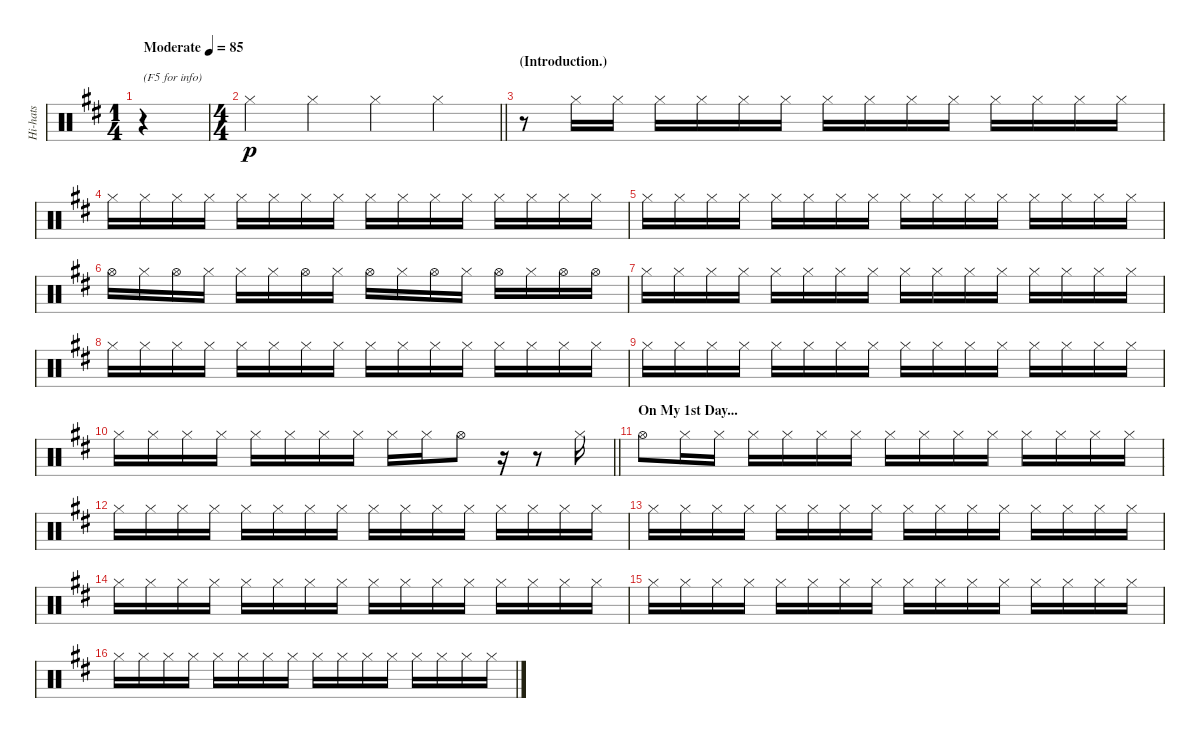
\track ("Hi-hats" "Hi-hats") {instrument percussion}
\staff {score}
\articulation defaults
\ts (1 4)
\tempo (85 "Moderate")
\clef neutral
\ks bminor
r.4{txt "(F5 for info)" dy p} |
\ts (4 4)
\barLineRight lightlight "Hi-Hat (closed)".4 "Hi-Hat (closed)".4 "Hi-Hat (closed)".4 "Hi-Hat (closed)".4
|
\section ("" "(Introduction.)")
r.8 "Hi-Hat (closed)".16 "Hi-Hat (closed)".16 "Hi-Hat (closed)".16 "Hi-Hat (closed)".16 "Hi-Hat (closed)".16 "Hi-Hat (closed)".16 "Hi-Hat (closed)".16 "Hi-Hat (closed)".16 "Hi-Hat (closed)".16 "Hi-Hat (closed)".16 "Hi-Hat (closed)".16 "Hi-Hat (closed)".16 "Hi-Hat (closed)".16 "Hi-Hat (closed)".16 |
"Hi-Hat (closed)".16 "Hi-Hat (closed)".16 "Hi-Hat (closed)".16 "Hi-Hat (closed)".16 "Hi-Hat (closed)".16 "Hi-Hat (closed)".16 "Hi-Hat (closed)".16 "Hi-Hat (closed)".16 "Hi-Hat (closed)".16 "Hi-Hat (closed)".16 "Hi-Hat (closed)".16 "Hi-Hat (closed)".16 "Hi-Hat (closed)".16 "Hi-Hat (closed)".16 "Hi-Hat (closed)".16 "Hi-Hat (closed)".16 |
"Hi-Hat (closed)".16 "Hi-Hat (closed)".16 "Hi-Hat (closed)".16 "Hi-Hat (closed)".16 "Hi-Hat (closed)".16 "Hi-Hat (closed)".16 "Hi-Hat (closed)".16 "Hi-Hat (closed)".16 "Hi-Hat (closed)".16 "Hi-Hat (closed)".16 "Hi-Hat (closed)".16 "Hi-Hat (closed)".16 "Hi-Hat (closed)".16 "Hi-Hat (closed)".16 "Hi-Hat (closed)".16 "Hi-Hat (closed)".16 |
"Hi-Hat (open)".16 "Hi-Hat (closed)".16 "Hi-Hat (open)".16 "Hi-Hat (closed)".16 "Hi-Hat (closed)".16 "Hi-Hat (closed)".16 "Hi-Hat (open)".16 "Hi-Hat (closed)".16 "Hi-Hat (open)".16 "Hi-Hat (closed)".16 "Hi-Hat (open)".16 "Hi-Hat (closed)".16 "Hi-Hat (open)".16 "Hi-Hat (closed)".16 "Hi-Hat (open)".16 "Hi-Hat (open)".16 |
"Hi-Hat (closed)".16 "Hi-Hat (closed)".16 "Hi-Hat (closed)".16 "Hi-Hat (closed)".16 "Hi-Hat (closed)".16 "Hi-Hat (closed)".16 "Hi-Hat (closed)".16 "Hi-Hat (closed)".16 "Hi-Hat (closed)".16 "Hi-Hat (closed)".16 "Hi-Hat (closed)".16 "Hi-Hat (closed)".16 "Hi-Hat (closed)".16 "Hi-Hat (closed)".16 "Hi-Hat (closed)".16 "Hi-Hat (closed)".16 |
"Hi-Hat (closed)".16 "Hi-Hat (closed)".16 "Hi-Hat (closed)".16 "Hi-Hat (closed)".16 "Hi-Hat (closed)".16 "Hi-Hat (closed)".16 "Hi-Hat (closed)".16 "Hi-Hat (closed)".16 "Hi-Hat (closed)".16 "Hi-Hat (closed)".16 "Hi-Hat (closed)".16 "Hi-Hat (closed)".16 "Hi-Hat (closed)".16 "Hi-Hat (closed)".16 "Hi-Hat (closed)".16 "Hi-Hat (closed)".16 |
"Hi-Hat (closed)".16 "Hi-Hat (closed)".16 "Hi-Hat (closed)".16 "Hi-Hat (closed)".16 "Hi-Hat (closed)".16 "Hi-Hat (closed)".16 "Hi-Hat (closed)".16 "Hi-Hat (closed)".16 "Hi-Hat (closed)".16 "Hi-Hat (closed)".16 "Hi-Hat (closed)".16 "Hi-Hat (closed)".16 "Hi-Hat (closed)".16 "Hi-Hat (closed)".16 "Hi-Hat (closed)".16 "Hi-Hat (closed)".16 |
\barLineRight lightlight "Hi-Hat (closed)".16 "Hi-Hat (closed)".16 "Hi-Hat (closed)".16 "Hi-Hat (closed)".16 "Hi-Hat (closed)".16 "Hi-Hat (closed)".16 "Hi-Hat (closed)".16 "Hi-Hat (closed)".16 "Hi-Hat (closed)".16 "Hi-Hat (closed)".16 "Hi-Hat (open)".8
r.16 r.8 "Hi-Hat (closed)".16 |
\section ("" "On My 1st Day...")
"Hi-Hat (open)".8 "Hi-Hat (closed)".16 "Hi-Hat (closed)".16 "Hi-Hat (closed)".16 "Hi-Hat (closed)".16 "Hi-Hat (closed)".16 "Hi-Hat (closed)".16 "Hi-Hat (closed)".16 "Hi-Hat (closed)".16 "Hi-Hat (closed)".16 "Hi-Hat (closed)".16 "Hi-Hat (closed)".16 "Hi-Hat (closed)".16 "Hi-Hat (closed)".16 "Hi-Hat (closed)".16 |
"Hi-Hat (closed)".16 "Hi-Hat (closed)".16 "Hi-Hat (closed)".16 "Hi-Hat (closed)".16 "Hi-Hat (closed)".16 "Hi-Hat (closed)".16 "Hi-Hat (closed)".16 "Hi-Hat (closed)".16 "Hi-Hat (closed)".16 "Hi-Hat (closed)".16 "Hi-Hat (closed)".16 "Hi-Hat (closed)".16 "Hi-Hat (closed)".16 "Hi-Hat (closed)".16 "Hi-Hat (closed)".16 "Hi-Hat (closed)".16 |
"Hi-Hat (closed)".16 "Hi-Hat (closed)".16 "Hi-Hat (closed)".16 "Hi-Hat (closed)".16 "Hi-Hat (closed)".16 "Hi-Hat (closed)".16 "Hi-Hat (closed)".16 "Hi-Hat (closed)".16 "Hi-Hat (closed)".16 "Hi-Hat (closed)".16 "Hi-Hat (closed)".16 "Hi-Hat (closed)".16 "Hi-Hat (closed)".16 "Hi-Hat (closed)".16 "Hi-Hat (closed)".16 "Hi-Hat (closed)".16 |
"Hi-Hat (closed)".16 "Hi-Hat (closed)".16 "Hi-Hat (closed)".16 "Hi-Hat (closed)".16 "Hi-Hat (closed)".16 "Hi-Hat (closed)".16 "Hi-Hat (closed)".16 "Hi-Hat (closed)".16 "Hi-Hat (closed)".16 "Hi-Hat (closed)".16 "Hi-Hat (closed)".16 "Hi-Hat (closed)".16 "Hi-Hat (closed)".16 "Hi-Hat (closed)".16 "Hi-Hat (closed)".16 "Hi-Hat (closed)".16 |
"Hi-Hat (closed)".16 "Hi-Hat (closed)".16 "Hi-Hat (closed)".16 "Hi-Hat (closed)".16 "Hi-Hat (closed)".16 "Hi-Hat (closed)".16 "Hi-Hat (closed)".16 "Hi-Hat (closed)".16 "Hi-Hat (closed)".16 "Hi-Hat (closed)".16 "Hi-Hat (closed)".16 "Hi-Hat (closed)".16 "Hi-Hat (closed)".16 "Hi-Hat (closed)".16 "Hi-Hat (closed)".16 "Hi-Hat (closed)".16 |
"Hi-Hat (closed)".16 "Hi-Hat (closed)".16 "Hi-Hat (closed)".16 "Hi-Hat (closed)".16 "Hi-Hat (closed)".16 "Hi-Hat (closed)".16 "Hi-Hat (closed)".16 "Hi-Hat (closed)".16 "Hi-Hat (closed)".16 "Hi-Hat (closed)".16 "Hi-Hat (closed)".16 "Hi-Hat (closed)".16 "Hi-Hat (closed)".16 "Hi-Hat (closed)".16 "Hi-Hat (closed)".16 "Hi-Hat (closed)".16
